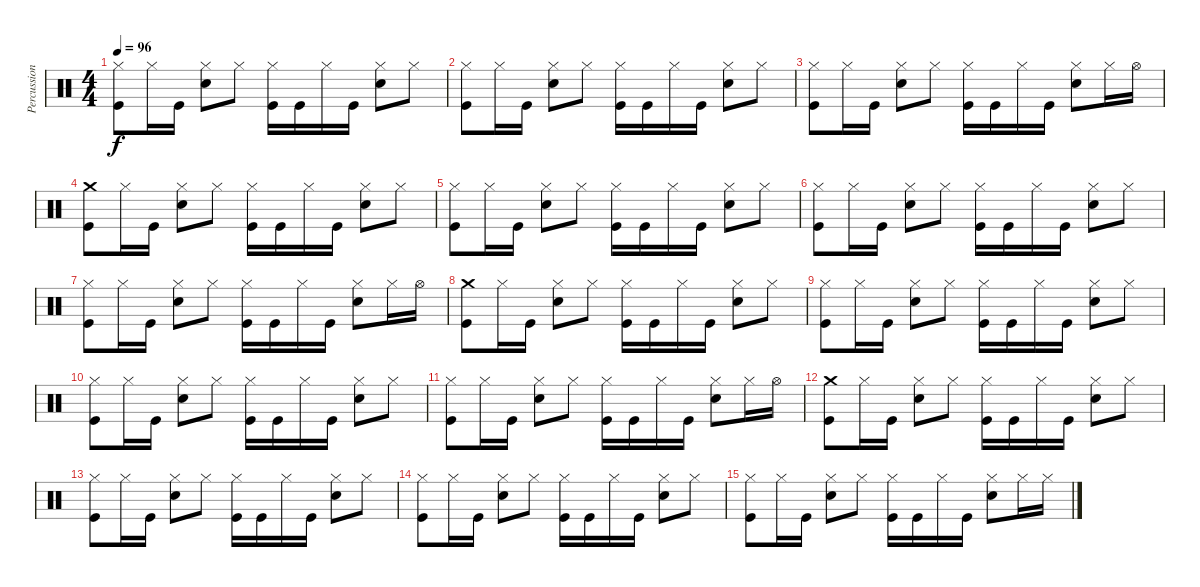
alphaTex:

\track ("Percussion" "Percussion") {instrument percussion}
\staff {score}
\articulation defaults
\ts (4 4)
\tempo 96
\clef neutral
\ks c
("Hi-Hat (closed)" "Kick (hit)").8{dy f} "Hi-Hat (closed)".16 "Kick (hit)".16 ("Hi-Hat (closed)" "Snare (hit) 2").8 "Hi-Hat (closed)".8 ("Hi-Hat (closed)" "Kick (hit)").16 "Kick (hit)".16 "Hi-Hat (closed)".16 "Kick (hit)".16 ("Hi-Hat (closed)" "Snare (hit) 2").8 "Hi-Hat (closed)".8 |
("Hi-Hat (closed)" "Kick (hit)").8 "Hi-Hat (closed)".16 "Kick (hit)".16 ("Hi-Hat (closed)" "Snare (hit) 2").8 "Hi-Hat (closed)".8 ("Hi-Hat (closed)" "Kick (hit)").16 "Kick (hit)".16 "Hi-Hat (closed)".16 "Kick (hit)".16 ("Hi-Hat (closed)" "Snare (hit) 2").8 "Hi-Hat (closed)".8 |
("Hi-Hat (closed)" "Kick (hit)").8 "Hi-Hat (closed)".16 "Kick (hit)".16 ("Hi-Hat (closed)" "Snare (hit) 2").8 "Hi-Hat (closed)".8 ("Hi-Hat (closed)" "Kick (hit)").16 "Kick (hit)".16 "Hi-Hat (closed)".16 "Kick (hit)".16 ("Hi-Hat (closed)" "Snare (hit) 2").8 "Hi-Hat (closed)".16 "Hi-Hat (open)".16 |
("Crash medium (hit)" "Kick (hit)").8 "Hi-Hat (closed)".16 "Kick (hit)".16 ("Hi-Hat (closed)" "Snare (hit) 2").8 "Hi-Hat (closed)".8 ("Hi-Hat (closed)" "Kick (hit)").16 "Kick (hit)".16 "Hi-Hat (closed)".16 "Kick (hit)".16 ("Hi-Hat (closed)" "Snare (hit) 2").8 "Hi-Hat (closed)".8 |
("Hi-Hat (closed)" "Kick (hit)").8 "Hi-Hat (closed)".16 "Kick (hit)".16 ("Hi-Hat (closed)" "Snare (hit) 2").8 "Hi-Hat (closed)".8 ("Hi-Hat (closed)" "Kick (hit)").16 "Kick (hit)".16 "Hi-Hat (closed)".16 "Kick (hit)".16 ("Hi-Hat (closed)" "Snare (hit) 2").8 "Hi-Hat (closed)".8 |
("Hi-Hat (closed)" "Kick (hit)").8 "Hi-Hat (closed)".16 "Kick (hit)".16 ("Hi-Hat (closed)" "Snare (hit) 2").8 "Hi-Hat (closed)".8 ("Hi-Hat (closed)" "Kick (hit)").16 "Kick (hit)".16 "Hi-Hat (closed)".16 "Kick (hit)".16 ("Hi-Hat (closed)" "Snare (hit) 2").8 "Hi-Hat (closed)".8 |
("Hi-Hat (closed)" "Kick (hit)").8 "Hi-Hat (closed)".16 "Kick (hit)".16 ("Hi-Hat (closed)" "Snare (hit) 2").8 "Hi-Hat (closed)".8 ("Hi-Hat (closed)" "Kick (hit)").16 "Kick (hit)".16 "Hi-Hat (closed)".16 "Kick (hit)".16 ("Hi-Hat (closed)" "Snare (hit) 2").8 "Hi-Hat (closed)".16 "Hi-Hat (open)".16 |
("Crash medium (hit)" "Kick (hit)").8 "Hi-Hat (closed)".16 "Kick (hit)".16 ("Hi-Hat (closed)" "Snare (hit) 2").8 "Hi-Hat (closed)".8 ("Hi-Hat (closed)" "Kick (hit)").16 "Kick (hit)".16 "Hi-Hat (closed)".16 "Kick (hit)".16 ("Hi-Hat (closed)" "Snare (hit) 2").8 "Hi-Hat (closed)".8 |
("Hi-Hat (closed)" "Kick (hit)").8 "Hi-Hat (closed)".16 "Kick (hit)".16 ("Hi-Hat (closed)" "Snare (hit) 2").8 "Hi-Hat (closed)".8 ("Hi-Hat (closed)" "Kick (hit)").16 "Kick (hit)".16 "Hi-Hat (closed)".16 "Kick (hit)".16 ("Hi-Hat (closed)" "Snare (hit) 2").8 "Hi-Hat (closed)".8 |
("Hi-Hat (closed)" "Kick (hit)").8 "Hi-Hat (closed)".16 "Kick (hit)".16 ("Hi-Hat (closed)" "Snare (hit) 2").8 "Hi-Hat (closed)".8 ("Hi-Hat (closed)" "Kick (hit)").16 "Kick (hit)".16 "Hi-Hat (closed)".16 "Kick (hit)".16 ("Hi-Hat (closed)" "Snare (hit) 2").8 "Hi-Hat (closed)".8 |
("Hi-Hat (closed)" "Kick (hit)").8 "Hi-Hat (closed)".16 "Kick (hit)".16 ("Hi-Hat (closed)" "Snare (hit) 2").8 "Hi-Hat (closed)".8 ("Hi-Hat (closed)" "Kick (hit)").16 "Kick (hit)".16 "Hi-Hat (closed)".16 "Kick (hit)".16 ("Hi-Hat (closed)" "Snare (hit) 2").8 "Hi-Hat (closed)".16 "Hi-Hat (open)".16 |
("Crash medium (hit)" "Kick (hit)").8 "Hi-Hat (closed)".16 "Kick (hit)".16 ("Hi-Hat (closed)" "Snare (hit) 2").8 "Hi-Hat (closed)".8 ("Hi-Hat (closed)" "Kick (hit)").16 "Kick (hit)".16 "Hi-Hat (closed)".16 "Kick (hit)".16 ("Hi-Hat (closed)" "Snare (hit) 2").8 "Hi-Hat (closed)".8 |
("Hi-Hat (closed)" "Kick (hit)").8 "Hi-Hat (closed)".16 "Kick (hit)".16 ("Hi-Hat (closed)" "Snare (hit) 2").8 "Hi-Hat (closed)".8 ("Hi-Hat (closed)" "Kick (hit)").16 "Kick (hit)".16 "Hi-Hat (closed)".16 "Kick (hit)".16 ("Hi-Hat (closed)" "Snare (hit) 2").8 "Hi-Hat (closed)".8 |
("Hi-Hat (closed)" "Kick (hit)").8 "Hi-Hat (closed)".16 "Kick (hit)".16 ("Hi-Hat (closed)" "Snare (hit) 2").8 "Hi-Hat (closed)".8 ("Hi-Hat (closed)" "Kick (hit)").16 "Kick (hit)".16 "Hi-Hat (closed)".16 "Kick (hit)".16 ("Hi-Hat (closed)" "Snare (hit) 2").8 "Hi-Hat (closed)".8 |
("Hi-Hat (closed)" "Kick (hit)").8 "Hi-Hat (closed)".16 "Kick (hit)".16 ("Hi-Hat (closed)" "Snare (hit) 2").8 "Hi-Hat (closed)".8 ("Hi-Hat (closed)" "Kick (hit)").16 "Kick (hit)".16 "Hi-Hat (closed)".16 "Kick (hit)".16 ("Hi-Hat (closed)" "Snare (hit) 2").8 "Hi-Hat (closed)".16 "Hi-Hat (closed)".16
